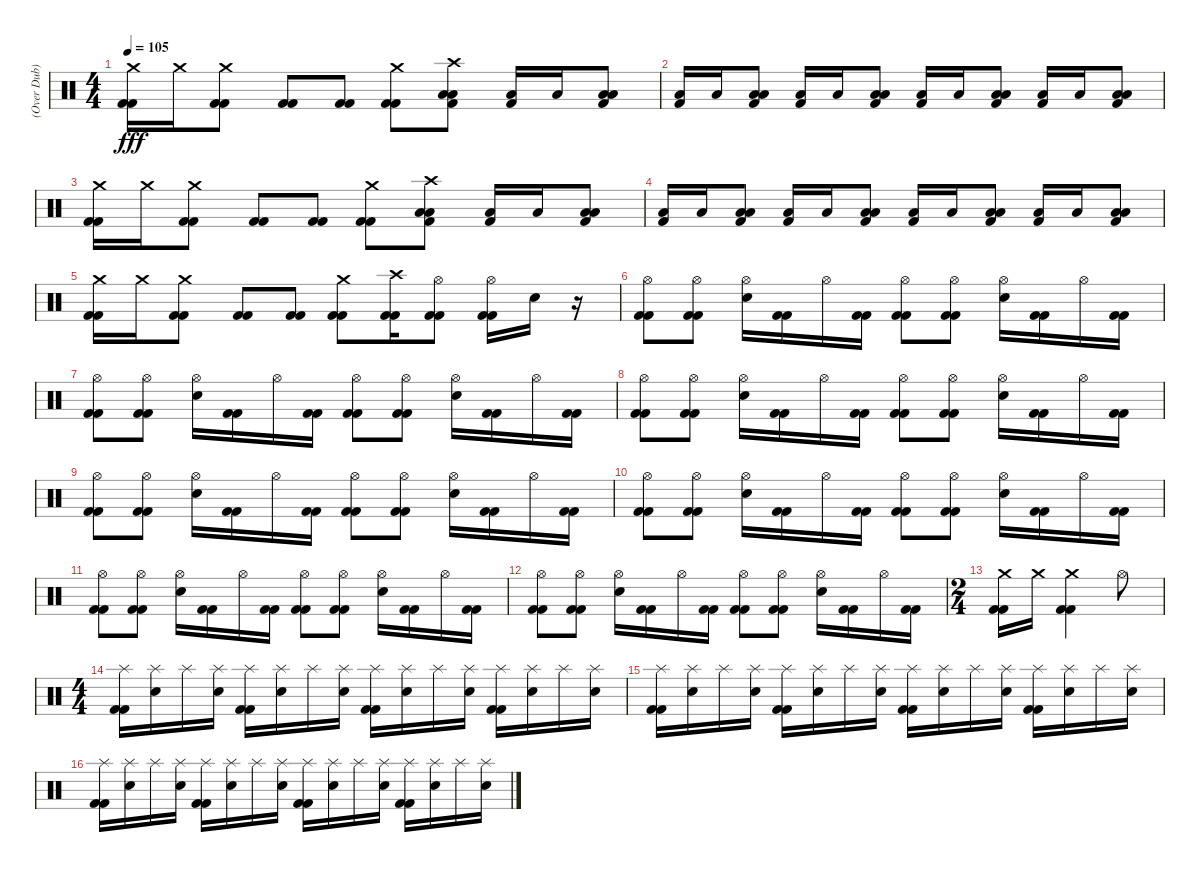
\track ("(Over Dub)" "(Over Dub)") {instrument percussion}
\staff {score}
\articulation defaults
\ts (4 4)
\tempo 105
\clef neutral
\ks c
("Crash medium (hit)" "Kick (hit) 2" "Kick (hit) 2").16{dy fff} "Crash medium (hit)".16 ("Crash medium (hit)" "Kick (hit) 2" "Kick (hit) 2").8 ("Kick (hit) 2" "Kick (hit) 2").8 ("Kick (hit) 2" "Kick (hit) 2").8 ("Crash medium (hit)" "Kick (hit) 2" "Kick (hit) 2").8 ("Crash high (hit)" "Low Tom (hit)" "Low Floor Tom (hit)" "Kick (hit) 2").8 ("Low Floor Tom (hit)" "Kick (hit) 2").16 "Low Floor Tom (hit)".16 ("Low Tom (hit)" "Low Floor Tom (hit)" "Kick (hit) 2").8 |
("Low Floor Tom (hit)" "Kick (hit) 2").16 "Low Floor Tom (hit)".16 ("Low Tom (hit)" "Low Floor Tom (hit)" "Kick (hit) 2").8 ("Low Floor Tom (hit)" "Kick (hit) 2").16 "Low Floor Tom (hit)".16 ("Low Tom (hit)" "Low Floor Tom (hit)" "Kick (hit) 2").8 ("Low Floor Tom (hit)" "Kick (hit) 2").16 "Low Floor Tom (hit)".16 ("Low Tom (hit)" "Low Floor Tom (hit)" "Kick (hit) 2").8 ("Low Floor Tom (hit)" "Kick (hit) 2").16 "Low Floor Tom (hit)".16 ("Low Tom (hit)" "Low Floor Tom (hit)" "Kick (hit) 2").8 |
("Crash medium (hit)" "Kick (hit) 2" "Kick (hit) 2").16 "Crash medium (hit)".16 ("Crash medium (hit)" "Kick (hit) 2" "Kick (hit) 2").8 ("Kick (hit) 2" "Kick (hit) 2").8 ("Kick (hit) 2" "Kick (hit) 2").8 ("Crash medium (hit)" "Kick (hit) 2" "Kick (hit) 2").8 ("Crash high (hit)" "Low Tom (hit)" "Low Floor Tom (hit)" "Kick (hit) 2").8 ("Low Floor Tom (hit)" "Kick (hit) 2").16 "Low Floor Tom (hit)".16 ("Low Tom (hit)" "Low Floor Tom (hit)" "Kick (hit) 2").8 |
("Low Floor Tom (hit)" "Kick (hit) 2").16 "Low Floor Tom (hit)".16 ("Low Tom (hit)" "Low Floor Tom (hit)" "Kick (hit) 2").8 ("Low Floor Tom (hit)" "Kick (hit) 2").16 "Low Floor Tom (hit)".16 ("Low Tom (hit)" "Low Floor Tom (hit)" "Kick (hit) 2").8 ("Low Floor Tom (hit)" "Kick (hit) 2").16 "Low Floor Tom (hit)".16 ("Low Tom (hit)" "Low Floor Tom (hit)" "Kick (hit) 2").8 ("Low Floor Tom (hit)" "Kick (hit) 2").16 "Low Floor Tom (hit)".16 ("Low Tom (hit)" "Low Floor Tom (hit)" "Kick (hit) 2").8 |
("Crash medium (hit)" "Kick (hit) 2" "Kick (hit) 2").16 "Crash medium (hit)".16 ("Crash medium (hit)" "Kick (hit) 2" "Kick (hit) 2").8 ("Kick (hit) 2" "Kick (hit) 2").8 ("Kick (hit) 2" "Kick (hit) 2").8 ("Crash medium (hit)" "Kick (hit) 2" "Kick (hit) 2").8 ("Crash high (hit)" "Kick (hit) 2" "Kick (hit) 2").16 ("Hi-Hat (open)" "Kick (hit) 2" "Kick (hit) 2").8 ("Hi-Hat (open)" "Kick (hit) 2" "Kick (hit) 2").16 "Electric Snare (hit)".16 r.16 |
("Hi-Hat (open)" "Kick (hit) 2" "Kick (hit) 2").8 ("Hi-Hat (open)" "Kick (hit) 2" "Kick (hit) 2").8 ("Hi-Hat (open)" "Electric Snare (hit)").16 ("Kick (hit) 2" "Kick (hit) 2").16 "Hi-Hat (open)".16 ("Kick (hit) 2" "Kick (hit) 2").16 ("Hi-Hat (open)" "Kick (hit) 2" "Kick (hit) 2").8 ("Hi-Hat (open)" "Kick (hit) 2" "Kick (hit) 2").8 ("Hi-Hat (open)" "Electric Snare (hit)").16 ("Kick (hit) 2" "Kick (hit) 2").16 "Hi-Hat (open)".16 ("Kick (hit) 2" "Kick (hit) 2").16 |
("Hi-Hat (open)" "Kick (hit) 2" "Kick (hit) 2").8 ("Hi-Hat (open)" "Kick (hit) 2" "Kick (hit) 2").8 ("Hi-Hat (open)" "Electric Snare (hit)").16 ("Kick (hit) 2" "Kick (hit) 2").16 "Hi-Hat (open)".16 ("Kick (hit) 2" "Kick (hit) 2").16 ("Hi-Hat (open)" "Kick (hit) 2" "Kick (hit) 2").8 ("Hi-Hat (open)" "Kick (hit) 2" "Kick (hit) 2").8 ("Hi-Hat (open)" "Electric Snare (hit)").16 ("Kick (hit) 2" "Kick (hit) 2").16 "Hi-Hat (open)".16 ("Kick (hit) 2" "Kick (hit) 2").16 |
("Hi-Hat (open)" "Kick (hit) 2" "Kick (hit) 2").8 ("Hi-Hat (open)" "Kick (hit) 2" "Kick (hit) 2").8 ("Hi-Hat (open)" "Electric Snare (hit)").16 ("Kick (hit) 2" "Kick (hit) 2").16 "Hi-Hat (open)".16 ("Kick (hit) 2" "Kick (hit) 2").16 ("Hi-Hat (open)" "Kick (hit) 2" "Kick (hit) 2").8 ("Hi-Hat (open)" "Kick (hit) 2" "Kick (hit) 2").8 ("Hi-Hat (open)" "Electric Snare (hit)").16 ("Kick (hit) 2" "Kick (hit) 2").16 "Hi-Hat (open)".16 ("Kick (hit) 2" "Kick (hit) 2").16 |
("Hi-Hat (open)" "Kick (hit) 2" "Kick (hit) 2").8 ("Hi-Hat (open)" "Kick (hit) 2" "Kick (hit) 2").8 ("Hi-Hat (open)" "Electric Snare (hit)").16 ("Kick (hit) 2" "Kick (hit) 2").16 "Hi-Hat (open)".16 ("Kick (hit) 2" "Kick (hit) 2").16 ("Hi-Hat (open)" "Kick (hit) 2" "Kick (hit) 2").8 ("Hi-Hat (open)" "Kick (hit) 2" "Kick (hit) 2").8 ("Hi-Hat (open)" "Electric Snare (hit)").16 ("Kick (hit) 2" "Kick (hit) 2").16 "Hi-Hat (open)".16 ("Kick (hit) 2" "Kick (hit) 2").16 |
("Hi-Hat (open)" "Kick (hit) 2" "Kick (hit) 2").8 ("Hi-Hat (open)" "Kick (hit) 2" "Kick (hit) 2").8 ("Hi-Hat (open)" "Electric Snare (hit)").16 ("Kick (hit) 2" "Kick (hit) 2").16 "Hi-Hat (open)".16 ("Kick (hit) 2" "Kick (hit) 2").16 ("Hi-Hat (open)" "Kick (hit) 2" "Kick (hit) 2").8 ("Hi-Hat (open)" "Kick (hit) 2" "Kick (hit) 2").8 ("Hi-Hat (open)" "Electric Snare (hit)").16 ("Kick (hit) 2" "Kick (hit) 2").16 "Hi-Hat (open)".16 ("Kick (hit) 2" "Kick (hit) 2").16 |
("Hi-Hat (open)" "Kick (hit) 2" "Kick (hit) 2").8 ("Hi-Hat (open)" "Kick (hit) 2" "Kick (hit) 2").8 ("Hi-Hat (open)" "Electric Snare (hit)").16 ("Kick (hit) 2" "Kick (hit) 2").16 "Hi-Hat (open)".16 ("Kick (hit) 2" "Kick (hit) 2").16 ("Hi-Hat (open)" "Kick (hit) 2" "Kick (hit) 2").8 ("Hi-Hat (open)" "Kick (hit) 2" "Kick (hit) 2").8 ("Hi-Hat (open)" "Electric Snare (hit)").16 ("Kick (hit) 2" "Kick (hit) 2").16 "Hi-Hat (open)".16 ("Kick (hit) 2" "Kick (hit) 2").16 |
("Hi-Hat (open)" "Kick (hit) 2" "Kick (hit) 2").8 ("Hi-Hat (open)" "Kick (hit) 2" "Kick (hit) 2").8 ("Hi-Hat (open)" "Electric Snare (hit)").16 ("Kick (hit) 2" "Kick (hit) 2").16 "Hi-Hat (open)".16 ("Kick (hit) 2" "Kick (hit) 2").16 ("Hi-Hat (open)" "Kick (hit) 2" "Kick (hit) 2").8 ("Hi-Hat (open)" "Kick (hit) 2" "Kick (hit) 2").8 ("Hi-Hat (open)" "Electric Snare (hit)").16 ("Kick (hit) 2" "Kick (hit) 2").16 "Hi-Hat (open)".16 ("Kick (hit) 2" "Kick (hit) 2").16 |
\ts (2 4)
("Crash medium (hit)" "Kick (hit) 2" "Kick (hit) 2").16 "Crash medium (hit)".16 ("Crash medium (hit)" "Kick (hit) 2" "Kick (hit) 2").4 "Hi-Hat (open)".8 |
\ts (4 4)
("Splash (hit)" "Kick (hit) 2" "Kick (hit) 2").16 ("Splash (hit)" "Electric Snare (hit)").16 "Splash (hit)".16 ("Splash (hit)" "Electric Snare (hit)").16 ("Splash (hit)" "Kick (hit) 2" "Kick (hit) 2").16 ("Splash (hit)" "Electric Snare (hit)").16 "Splash (hit)".16 ("Splash (hit)" "Electric Snare (hit)").16 ("Splash (hit)" "Kick (hit) 2" "Kick (hit) 2").16 ("Splash (hit)" "Electric Snare (hit)").16 "Splash (hit)".16 ("Splash (hit)" "Electric Snare (hit)").16 ("Splash (hit)" "Kick (hit) 2" "Kick (hit) 2").16 ("Splash (hit)" "Electric Snare (hit)").16 "Splash (hit)".16 ("Splash (hit)" "Electric Snare (hit)").16 |
("Splash (hit)" "Kick (hit) 2" "Kick (hit) 2").16 ("Splash (hit)" "Electric Snare (hit)").16 "Splash (hit)".16 ("Splash (hit)" "Electric Snare (hit)").16 ("Splash (hit)" "Kick (hit) 2" "Kick (hit) 2").16 ("Splash (hit)" "Electric Snare (hit)").16 "Splash (hit)".16 ("Splash (hit)" "Electric Snare (hit)").16 ("Splash (hit)" "Kick (hit) 2" "Kick (hit) 2").16 ("Splash (hit)" "Electric Snare (hit)").16 "Splash (hit)".16 ("Splash (hit)" "Electric Snare (hit)").16 ("Splash (hit)" "Kick (hit) 2" "Kick (hit) 2").16 ("Splash (hit)" "Electric Snare (hit)").16 "Splash (hit)".16 ("Splash (hit)" "Electric Snare (hit)").16 |
("Splash (hit)" "Kick (hit) 2" "Kick (hit) 2").16 ("Splash (hit)" "Electric Snare (hit)").16 "Splash (hit)".16 ("Splash (hit)" "Electric Snare (hit)").16 ("Splash (hit)" "Kick (hit) 2" "Kick (hit) 2").16 ("Splash (hit)" "Electric Snare (hit)").16 "Splash (hit)".16 ("Splash (hit)" "Electric Snare (hit)").16 ("Splash (hit)" "Kick (hit) 2" "Kick (hit) 2").16 ("Splash (hit)" "Electric Snare (hit)").16 "Splash (hit)".16 ("Splash (hit)" "Electric Snare (hit)").16 ("Splash (hit)" "Kick (hit) 2" "Kick (hit) 2").16 ("Splash (hit)" "Electric Snare (hit)").16 "Splash (hit)".16 ("Splash (hit)" "Electric Snare (hit)").16
